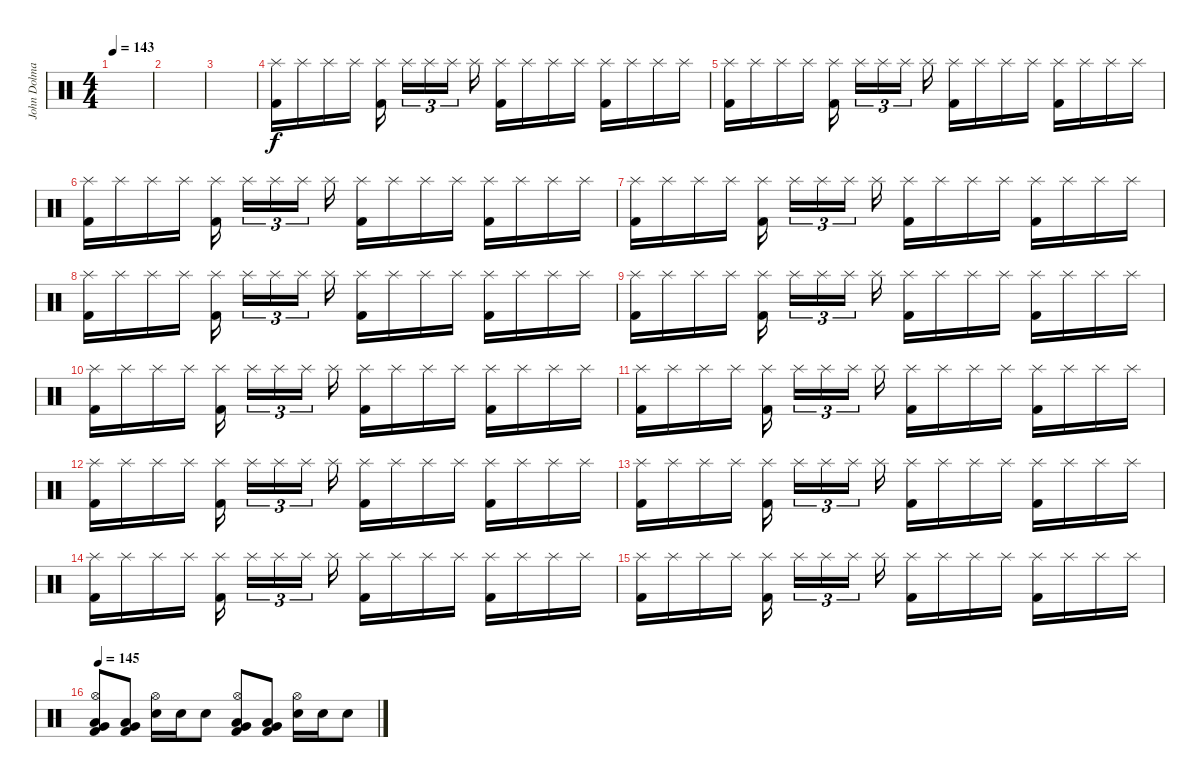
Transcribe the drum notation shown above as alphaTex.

\track ("John Dolmayan (Drums)" "John Dolma") {instrument percussion}
\staff {score}
\articulation defaults
\ts (4 4)
\tempo 143
\clef neutral
\ks c
|
|
|
("Splash (hit)" "Kick (hit) 2").16 "Splash (hit)".16 "Splash (hit)".16 "Splash (hit)".16 ("Splash (hit)" "Kick (hit) 2").16{beam splitsecondary} "Splash (hit)".16{tu (3 2)} "Splash (hit)".16{tu (3 2)} "Splash (hit)".16{tu (3 2) beam splitsecondary} "Splash (hit)".16 ("Splash (hit)" "Kick (hit) 2").16 "Splash (hit)".16 "Splash (hit)".16 "Splash (hit)".16 ("Splash (hit)" "Kick (hit) 2").16 "Splash (hit)".16 "Splash (hit)".16 "Splash (hit)".16 |
("Splash (hit)" "Kick (hit) 2").16 "Splash (hit)".16 "Splash (hit)".16 "Splash (hit)".16 ("Splash (hit)" "Kick (hit) 2").16{beam splitsecondary} "Splash (hit)".16{tu (3 2)} "Splash (hit)".16{tu (3 2)} "Splash (hit)".16{tu (3 2) beam splitsecondary} "Splash (hit)".16 ("Splash (hit)" "Kick (hit) 2").16 "Splash (hit)".16 "Splash (hit)".16 "Splash (hit)".16 ("Splash (hit)" "Kick (hit) 2").16 "Splash (hit)".16 "Splash (hit)".16 "Splash (hit)".16 |
("Splash (hit)" "Kick (hit) 2").16 "Splash (hit)".16 "Splash (hit)".16 "Splash (hit)".16 ("Splash (hit)" "Kick (hit) 2").16{beam splitsecondary} "Splash (hit)".16{tu (3 2)} "Splash (hit)".16{tu (3 2)} "Splash (hit)".16{tu (3 2) beam splitsecondary} "Splash (hit)".16 ("Splash (hit)" "Kick (hit) 2").16 "Splash (hit)".16 "Splash (hit)".16 "Splash (hit)".16 ("Splash (hit)" "Kick (hit) 2").16 "Splash (hit)".16 "Splash (hit)".16 "Splash (hit)".16 |
("Splash (hit)" "Kick (hit) 2").16 "Splash (hit)".16 "Splash (hit)".16 "Splash (hit)".16 ("Splash (hit)" "Kick (hit) 2").16{beam splitsecondary} "Splash (hit)".16{tu (3 2)} "Splash (hit)".16{tu (3 2)} "Splash (hit)".16{tu (3 2) beam splitsecondary} "Splash (hit)".16 ("Splash (hit)" "Kick (hit) 2").16 "Splash (hit)".16 "Splash (hit)".16 "Splash (hit)".16 ("Splash (hit)" "Kick (hit) 2").16 "Splash (hit)".16 "Splash (hit)".16 "Splash (hit)".16 |
("Splash (hit)" "Kick (hit) 2").16 "Splash (hit)".16 "Splash (hit)".16 "Splash (hit)".16 ("Splash (hit)" "Kick (hit) 2").16{beam splitsecondary} "Splash (hit)".16{tu (3 2)} "Splash (hit)".16{tu (3 2)} "Splash (hit)".16{tu (3 2) beam splitsecondary} "Splash (hit)".16 ("Splash (hit)" "Kick (hit) 2").16 "Splash (hit)".16 "Splash (hit)".16 "Splash (hit)".16 ("Splash (hit)" "Kick (hit) 2").16 "Splash (hit)".16 "Splash (hit)".16 "Splash (hit)".16 |
("Splash (hit)" "Kick (hit) 2").16 "Splash (hit)".16 "Splash (hit)".16 "Splash (hit)".16 ("Splash (hit)" "Kick (hit) 2").16{beam splitsecondary} "Splash (hit)".16{tu (3 2)} "Splash (hit)".16{tu (3 2)} "Splash (hit)".16{tu (3 2) beam splitsecondary} "Splash (hit)".16 ("Splash (hit)" "Kick (hit) 2").16 "Splash (hit)".16 "Splash (hit)".16 "Splash (hit)".16 ("Splash (hit)" "Kick (hit) 2").16 "Splash (hit)".16 "Splash (hit)".16 "Splash (hit)".16 |
("Splash (hit)" "Kick (hit) 2").16 "Splash (hit)".16 "Splash (hit)".16 "Splash (hit)".16 ("Splash (hit)" "Kick (hit) 2").16{beam splitsecondary} "Splash (hit)".16{tu (3 2)} "Splash (hit)".16{tu (3 2)} "Splash (hit)".16{tu (3 2) beam splitsecondary} "Splash (hit)".16 ("Splash (hit)" "Kick (hit) 2").16 "Splash (hit)".16 "Splash (hit)".16 "Splash (hit)".16 ("Splash (hit)" "Kick (hit) 2").16 "Splash (hit)".16 "Splash (hit)".16 "Splash (hit)".16 |
("Splash (hit)" "Kick (hit) 2").16 "Splash (hit)".16 "Splash (hit)".16 "Splash (hit)".16 ("Splash (hit)" "Kick (hit) 2").16{beam splitsecondary} "Splash (hit)".16{tu (3 2)} "Splash (hit)".16{tu (3 2)} "Splash (hit)".16{tu (3 2) beam splitsecondary} "Splash (hit)".16 ("Splash (hit)" "Kick (hit) 2").16 "Splash (hit)".16 "Splash (hit)".16 "Splash (hit)".16 ("Splash (hit)" "Kick (hit) 2").16 "Splash (hit)".16 "Splash (hit)".16 "Splash (hit)".16 |
("Splash (hit)" "Kick (hit) 2").16 "Splash (hit)".16 "Splash (hit)".16 "Splash (hit)".16 ("Splash (hit)" "Kick (hit) 2").16{beam splitsecondary} "Splash (hit)".16{tu (3 2)} "Splash (hit)".16{tu (3 2)} "Splash (hit)".16{tu (3 2) beam splitsecondary} "Splash (hit)".16 ("Splash (hit)" "Kick (hit) 2").16 "Splash (hit)".16 "Splash (hit)".16 "Splash (hit)".16 ("Splash (hit)" "Kick (hit) 2").16 "Splash (hit)".16 "Splash (hit)".16 "Splash (hit)".16 |
("Splash (hit)" "Kick (hit) 2").16 "Splash (hit)".16 "Splash (hit)".16 "Splash (hit)".16 ("Splash (hit)" "Kick (hit) 2").16{beam splitsecondary} "Splash (hit)".16{tu (3 2)} "Splash (hit)".16{tu (3 2)} "Splash (hit)".16{tu (3 2) beam splitsecondary} "Splash (hit)".16 ("Splash (hit)" "Kick (hit) 2").16 "Splash (hit)".16 "Splash (hit)".16 "Splash (hit)".16 ("Splash (hit)" "Kick (hit) 2").16 "Splash (hit)".16 "Splash (hit)".16 "Splash (hit)".16 |
("Splash (hit)" "Kick (hit) 2").16 "Splash (hit)".16 "Splash (hit)".16 "Splash (hit)".16 ("Splash (hit)" "Kick (hit) 2").16{beam splitsecondary} "Splash (hit)".16{tu (3 2)} "Splash (hit)".16{tu (3 2)} "Splash (hit)".16{tu (3 2) beam splitsecondary} "Splash (hit)".16 ("Splash (hit)" "Kick (hit) 2").16 "Splash (hit)".16 "Splash (hit)".16 "Splash (hit)".16 ("Splash (hit)" "Kick (hit) 2").16 "Splash (hit)".16 "Splash (hit)".16 "Splash (hit)".16 |
("Splash (hit)" "Kick (hit) 2").16 "Splash (hit)".16 "Splash (hit)".16 "Splash (hit)".16 ("Splash (hit)" "Kick (hit) 2").16{beam splitsecondary} "Splash (hit)".16{tu (3 2)} "Splash (hit)".16{tu (3 2)} "Splash (hit)".16{tu (3 2) beam splitsecondary} "Splash (hit)".16 ("Splash (hit)" "Kick (hit) 2").16 "Splash (hit)".16 "Splash (hit)".16 "Splash (hit)".16 ("Splash (hit)" "Kick (hit) 2").16 "Splash (hit)".16 "Splash (hit)".16 "Splash (hit)".16 |
\tempo 145
("Hi-Hat (open)" "Very Low Tom (hit)" "Low Floor Tom (hit)" "Kick (hit) 2").8 ("Very Low Tom (hit)" "Low Floor Tom (hit)" "Kick (hit) 2").8 ("Hi-Hat (open)" "Electric Snare (hit)").16 "Electric Snare (hit)".16 "Electric Snare (hit)".8 ("Hi-Hat (open)" "Very Low Tom (hit)" "Low Floor Tom (hit)" "Kick (hit) 2").8 ("Very Low Tom (hit)" "Low Floor Tom (hit)" "Kick (hit) 2").8 ("Hi-Hat (open)" "Electric Snare (hit)").16 "Electric Snare (hit)".16 "Electric Snare (hit)".8
